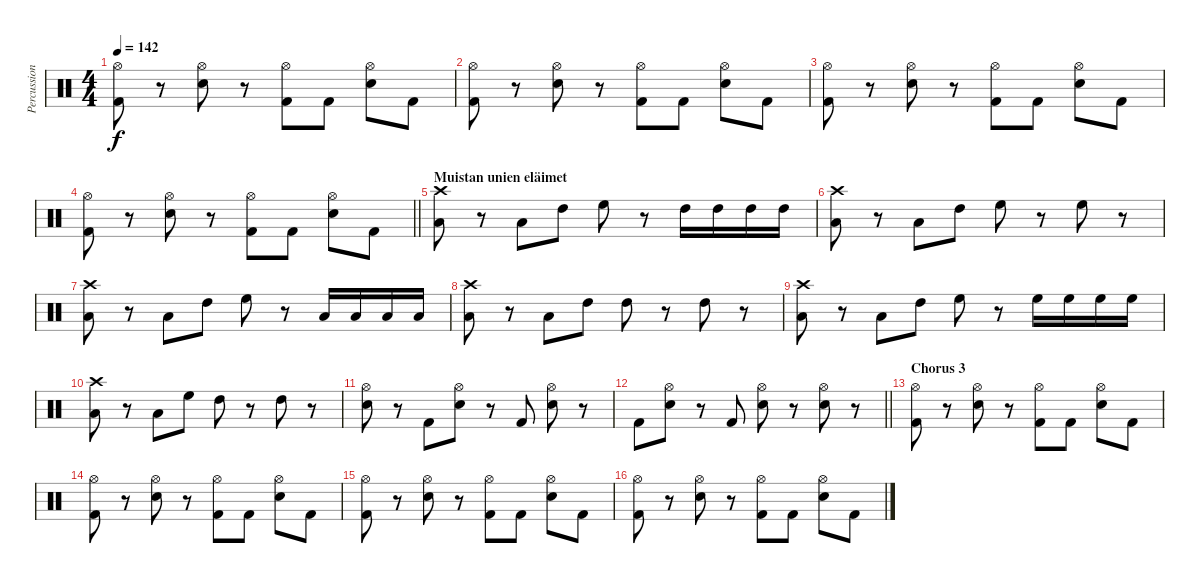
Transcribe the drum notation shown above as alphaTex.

\track ("Percussion" "Percussion") {instrument percussion}
\staff {score}
\articulation defaults
\ts (4 4)
\tempo 142
\clef neutral
\ks c
("Hi-Hat (open)" "Kick (hit) 2").8{dy f} r.8 ("Hi-Hat (open)" "Electric Snare (hit)").8 r.8 ("Hi-Hat (open)" "Kick (hit) 2").8 "Kick (hit) 2".8 ("Hi-Hat (open)" "Electric Snare (hit)").8 "Kick (hit) 2".8 |
("Hi-Hat (open)" "Kick (hit) 2").8 r.8 ("Hi-Hat (open)" "Electric Snare (hit)").8 r.8 ("Hi-Hat (open)" "Kick (hit) 2").8 "Kick (hit) 2".8 ("Hi-Hat (open)" "Electric Snare (hit)").8 "Kick (hit) 2".8 |
("Hi-Hat (open)" "Kick (hit) 2").8 r.8 ("Hi-Hat (open)" "Electric Snare (hit)").8 r.8 ("Hi-Hat (open)" "Kick (hit) 2").8 "Kick (hit) 2".8 ("Hi-Hat (open)" "Electric Snare (hit)").8 "Kick (hit) 2".8 |
\barLineRight lightlight
("Hi-Hat (open)" "Kick (hit) 2").8 r.8 ("Hi-Hat (open)" "Electric Snare (hit)").8 r.8 ("Hi-Hat (open)" "Kick (hit) 2").8 "Kick (hit) 2".8 ("Hi-Hat (open)" "Electric Snare (hit)").8 "Kick (hit) 2".8 |
\section ("" "Muistan unien eläimet")
("Crash high (hit)" "Low Tom (hit)").8 r.8 "Low Tom (hit)".8 "High Tom (hit)".8 "High Floor Tom (hit)".8 r.8 "High Tom (hit)".16 "High Tom (hit)".16 "High Tom (hit)".16 "High Tom (hit)".16 |
("Crash high (hit)" "Low Tom (hit)").8 r.8 "Low Tom (hit)".8 "High Tom (hit)".8 "High Floor Tom (hit)".8 r.8 "High Floor Tom (hit)".8 r.8 |
("Crash high (hit)" "Low Tom (hit)").8 r.8 "Low Tom (hit)".8 "High Tom (hit)".8 "High Floor Tom (hit)".8 r.8 "Low Tom (hit)".16 "Low Tom (hit)".16 "Low Tom (hit)".16 "Low Tom (hit)".16 |
("Crash high (hit)" "Low Tom (hit)").8 r.8 "Low Tom (hit)".8 "High Tom (hit)".8 "High Tom (hit)".8 r.8 "High Tom (hit)".8 r.8 |
("Crash high (hit)" "Low Tom (hit)").8 r.8 "Low Tom (hit)".8 "High Tom (hit)".8 "High Floor Tom (hit)".8 r.8 "High Floor Tom (hit)".16 "High Floor Tom (hit)".16 "High Floor Tom (hit)".16 "High Floor Tom (hit)".16 |
("Crash high (hit)" "Low Tom (hit)").8 r.8 "Low Tom (hit)".8 "High Floor Tom (hit)".8 "High Tom (hit)".8 r.8 "High Tom (hit)".8 r.8 |
("Hi-Hat (open)" "Electric Snare (hit)").8 r.8 "Kick (hit) 2".8 ("Hi-Hat (open)" "Electric Snare (hit)").8 r.8 "Kick (hit) 2".8 ("Hi-Hat (open)" "Electric Snare (hit)").8 r.8 |
\barLineRight lightlight "Kick (hit) 2".8
("Hi-Hat (open)" "Electric Snare (hit)").8 r.8 "Kick (hit) 2".8 ("Hi-Hat (open)" "Electric Snare (hit)").8 r.8 ("Hi-Hat (open)" "Electric Snare (hit)").8 r.8 |
\section ("" "Chorus 3")
("Hi-Hat (open)" "Kick (hit) 2").8 r.8 ("Hi-Hat (open)" "Electric Snare (hit)").8 r.8 ("Hi-Hat (open)" "Kick (hit) 2").8 "Kick (hit) 2".8 ("Hi-Hat (open)" "Electric Snare (hit)").8 "Kick (hit) 2".8 |
("Hi-Hat (open)" "Kick (hit) 2").8 r.8 ("Hi-Hat (open)" "Electric Snare (hit)").8 r.8 ("Hi-Hat (open)" "Kick (hit) 2").8 "Kick (hit) 2".8 ("Hi-Hat (open)" "Electric Snare (hit)").8 "Kick (hit) 2".8 |
("Hi-Hat (open)" "Kick (hit) 2").8 r.8 ("Hi-Hat (open)" "Electric Snare (hit)").8 r.8 ("Hi-Hat (open)" "Kick (hit) 2").8 "Kick (hit) 2".8 ("Hi-Hat (open)" "Electric Snare (hit)").8 "Kick (hit) 2".8 |
("Hi-Hat (open)" "Kick (hit) 2").8 r.8 ("Hi-Hat (open)" "Electric Snare (hit)").8 r.8 ("Hi-Hat (open)" "Kick (hit) 2").8 "Kick (hit) 2".8 ("Hi-Hat (open)" "Electric Snare (hit)").8 "Kick (hit) 2".8
